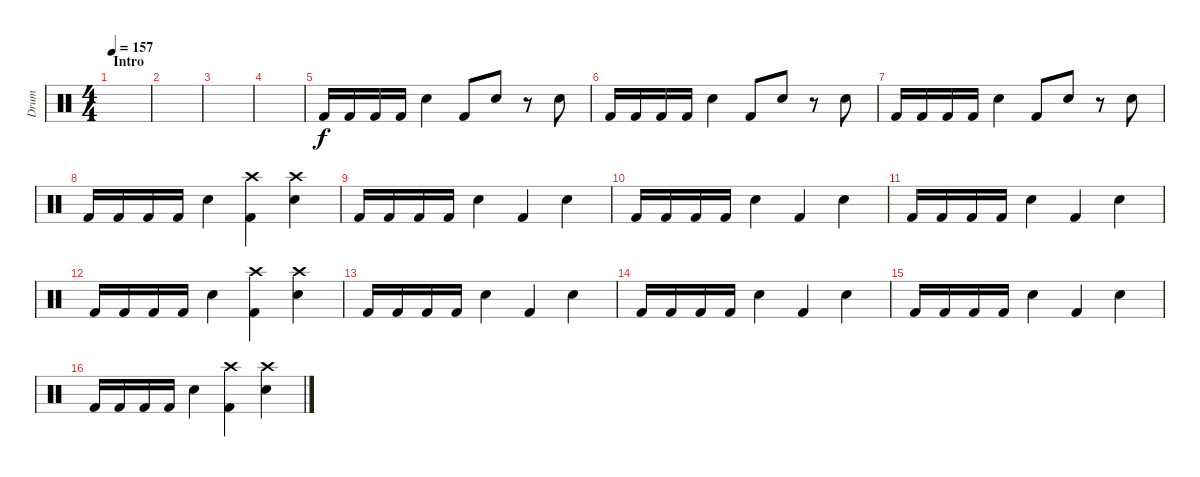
\track ("Drum" "Drum") {instrument percussion}
\staff {score}
\articulation defaults
\ts (4 4)
\section ("" "Intro")
\tempo 157
\clef neutral
\ks c
|
|
|
|
"Kick (hit) 2".16 "Kick (hit) 2".16 "Kick (hit) 2".16 "Kick (hit) 2".16 "Electric Snare (hit)".4 "Kick (hit) 2".8 "Electric Snare (hit)".8 r.8 "Electric Snare (hit)".8 |
"Kick (hit) 2".16 "Kick (hit) 2".16 "Kick (hit) 2".16 "Kick (hit) 2".16 "Electric Snare (hit)".4 "Kick (hit) 2".8 "Electric Snare (hit)".8 r.8 "Electric Snare (hit)".8 |
"Kick (hit) 2".16 "Kick (hit) 2".16 "Kick (hit) 2".16 "Kick (hit) 2".16 "Electric Snare (hit)".4 "Kick (hit) 2".8 "Electric Snare (hit)".8 r.8 "Electric Snare (hit)".8 |
"Kick (hit) 2".16 "Kick (hit) 2".16 "Kick (hit) 2".16 "Kick (hit) 2".16 "Electric Snare (hit)".4 ("Crash high (hit)" "Kick (hit) 2").4 ("Crash high (hit)" "Electric Snare (hit)").4 |
"Kick (hit) 2".16 "Kick (hit) 2".16 "Kick (hit) 2".16 "Kick (hit) 2".16 "Electric Snare (hit)".4 "Kick (hit) 2".4 "Electric Snare (hit)".4 |
"Kick (hit) 2".16 "Kick (hit) 2".16 "Kick (hit) 2".16 "Kick (hit) 2".16 "Electric Snare (hit)".4 "Kick (hit) 2".4 "Electric Snare (hit)".4 |
"Kick (hit) 2".16 "Kick (hit) 2".16 "Kick (hit) 2".16 "Kick (hit) 2".16 "Electric Snare (hit)".4 "Kick (hit) 2".4 "Electric Snare (hit)".4 |
"Kick (hit) 2".16 "Kick (hit) 2".16 "Kick (hit) 2".16 "Kick (hit) 2".16 "Electric Snare (hit)".4 ("Crash high (hit)" "Kick (hit) 2").4 ("Crash high (hit)" "Electric Snare (hit)").4 |
"Kick (hit) 2".16 "Kick (hit) 2".16 "Kick (hit) 2".16 "Kick (hit) 2".16 "Electric Snare (hit)".4 "Kick (hit) 2".4 "Electric Snare (hit)".4 |
"Kick (hit) 2".16 "Kick (hit) 2".16 "Kick (hit) 2".16 "Kick (hit) 2".16 "Electric Snare (hit)".4 "Kick (hit) 2".4 "Electric Snare (hit)".4 |
"Kick (hit) 2".16 "Kick (hit) 2".16 "Kick (hit) 2".16 "Kick (hit) 2".16 "Electric Snare (hit)".4 "Kick (hit) 2".4 "Electric Snare (hit)".4 |
"Kick (hit) 2".16 "Kick (hit) 2".16 "Kick (hit) 2".16 "Kick (hit) 2".16 "Electric Snare (hit)".4 ("Crash high (hit)" "Kick (hit) 2").4 ("Crash high (hit)" "Electric Snare (hit)").4
